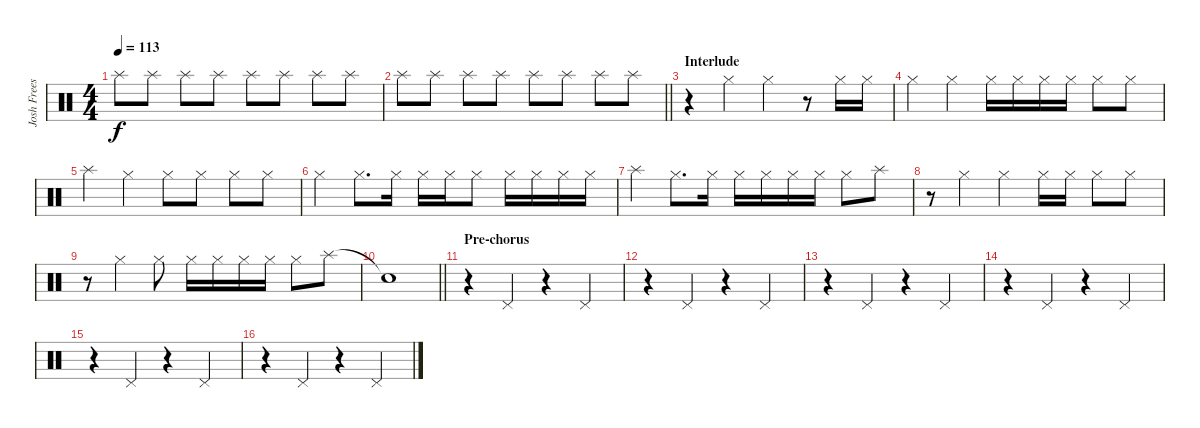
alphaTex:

\track ("Josh Freese (Studio Drummer)" "Josh Frees") {instrument percussion}
\staff {score}
\articulation defaults
\ts (4 4)
\tempo 113
\clef neutral
\ks c "Splash (hit)".8{dy f} "Splash (hit)".8 "Splash (hit)".8 "Splash (hit)".8 "Splash (hit)".8 "Splash (hit)".8 "Splash (hit)".8 "Splash (hit)".8
|
\barLineRight lightlight "Splash (hit)".8 "Splash (hit)".8 "Splash (hit)".8 "Splash (hit)".8 "Splash (hit)".8 "Splash (hit)".8 "Splash (hit)".8 "Splash (hit)".8
|
\section ("" "Interlude")
r.4 "Hi-Hat (closed)".4 "Hi-Hat (closed)".4 r.8 "Hi-Hat (closed)".16 "Hi-Hat (closed)".16 |
"Hi-Hat (closed)".4 "Hi-Hat (closed)".4 "Hi-Hat (closed)".16 "Hi-Hat (closed)".16 "Hi-Hat (closed)".16 "Hi-Hat (closed)".16 "Hi-Hat (closed)".8 "Hi-Hat (closed)".8 |
"Splash (hit)".4 "Hi-Hat (closed)".4 "Hi-Hat (closed)".8 "Hi-Hat (closed)".8 "Hi-Hat (closed)".8 "Hi-Hat (closed)".8 |
"Hi-Hat (closed)".4 "Hi-Hat (closed)".8{d} "Hi-Hat (closed)".16 "Hi-Hat (closed)".16 "Hi-Hat (closed)".16 "Hi-Hat (closed)".8 "Hi-Hat (closed)".16 "Hi-Hat (closed)".16 "Hi-Hat (closed)".16 "Hi-Hat (closed)".16 |
"Splash (hit)".4 "Hi-Hat (closed)".8{d} "Hi-Hat (closed)".16 "Hi-Hat (closed)".16 "Hi-Hat (closed)".16 "Hi-Hat (closed)".16 "Hi-Hat (closed)".16 "Hi-Hat (closed)".8 "Splash (hit)".8 |
r.8 "Hi-Hat (closed)".4 "Hi-Hat (closed)".4 "Hi-Hat (closed)".16 "Hi-Hat (closed)".16 "Hi-Hat (closed)".8 "Hi-Hat (closed)".8 |
r.8 "Hi-Hat (closed)".4 "Hi-Hat (closed)".8 "Hi-Hat (closed)".16 "Hi-Hat (closed)".16 "Hi-Hat (closed)".16 "Hi-Hat (closed)".16 "Hi-Hat (closed)".8 "Splash (hit)".8 |
\barLineRight lightlight "Snare (hit)"{t}.1
|
\section ("" "Pre-chorus")
r.4 "Pedal Hi-Hat (hit)".4 r.4 "Pedal Hi-Hat (hit)".4 |
r.4 "Pedal Hi-Hat (hit)".4 r.4 "Pedal Hi-Hat (hit)".4 |
r.4 "Pedal Hi-Hat (hit)".4 r.4 "Pedal Hi-Hat (hit)".4 |
r.4 "Pedal Hi-Hat (hit)".4 r.4 "Pedal Hi-Hat (hit)".4 |
r.4 "Pedal Hi-Hat (hit)".4 r.4 "Pedal Hi-Hat (hit)".4 |
r.4 "Pedal Hi-Hat (hit)".4 r.4 "Pedal Hi-Hat (hit)".4
